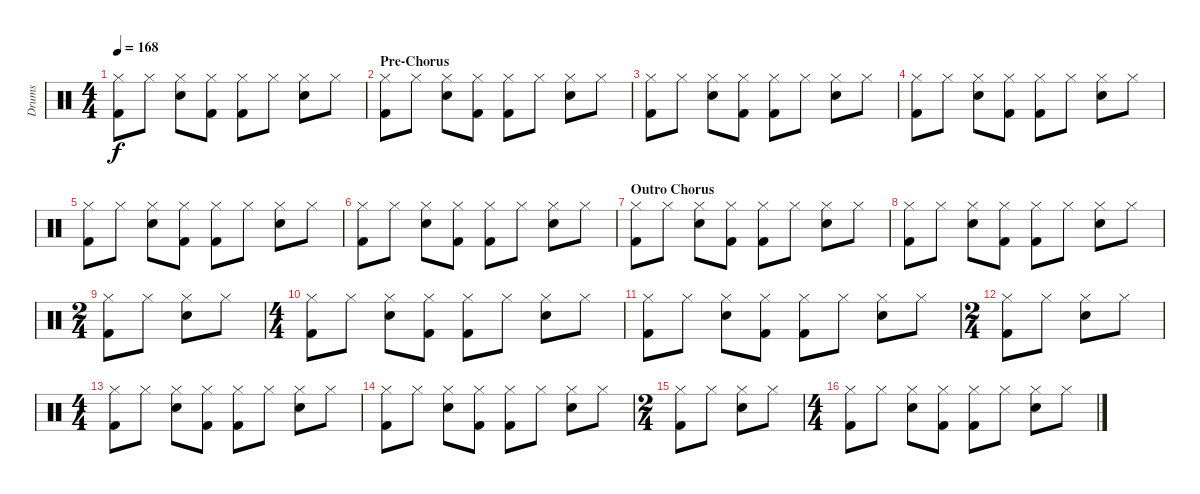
\track ("Drums" "Drums") {instrument percussion}
\staff {score}
\articulation defaults
\ts (4 4)
\tempo 168
\clef neutral
\ks c
("Kick (hit) 2" "Hi-Hat (closed)").8{dy f} "Hi-Hat (closed)".8 ("Snare (hit) 2" "Hi-Hat (closed)").8 ("Kick (hit) 2" "Hi-Hat (closed)").8 ("Kick (hit) 2" "Hi-Hat (closed)").8 "Hi-Hat (closed)".8 ("Snare (hit) 2" "Hi-Hat (closed)").8 "Hi-Hat (closed)".8 |
\section ("" "Pre-Chorus")
("Kick (hit) 2" "Hi-Hat (closed)").8 "Hi-Hat (closed)".8 ("Snare (hit) 2" "Hi-Hat (closed)").8 ("Kick (hit) 2" "Hi-Hat (closed)").8 ("Kick (hit) 2" "Hi-Hat (closed)").8 "Hi-Hat (closed)".8 ("Snare (hit) 2" "Hi-Hat (closed)").8 "Hi-Hat (closed)".8 |
("Kick (hit) 2" "Hi-Hat (closed)").8 "Hi-Hat (closed)".8 ("Snare (hit) 2" "Hi-Hat (closed)").8 ("Kick (hit) 2" "Hi-Hat (closed)").8 ("Kick (hit) 2" "Hi-Hat (closed)").8 "Hi-Hat (closed)".8 ("Snare (hit) 2" "Hi-Hat (closed)").8 "Hi-Hat (closed)".8 |
("Kick (hit) 2" "Hi-Hat (closed)").8 "Hi-Hat (closed)".8 ("Snare (hit) 2" "Hi-Hat (closed)").8 ("Kick (hit) 2" "Hi-Hat (closed)").8 ("Kick (hit) 2" "Hi-Hat (closed)").8 "Hi-Hat (closed)".8 ("Snare (hit) 2" "Hi-Hat (closed)").8 "Hi-Hat (closed)".8 |
("Kick (hit) 2" "Hi-Hat (closed)").8 "Hi-Hat (closed)".8 ("Snare (hit) 2" "Hi-Hat (closed)").8 ("Kick (hit) 2" "Hi-Hat (closed)").8 ("Kick (hit) 2" "Hi-Hat (closed)").8 "Hi-Hat (closed)".8 ("Snare (hit) 2" "Hi-Hat (closed)").8 "Hi-Hat (closed)".8 |
("Kick (hit) 2" "Hi-Hat (closed)").8 "Hi-Hat (closed)".8 ("Snare (hit) 2" "Hi-Hat (closed)").8 ("Kick (hit) 2" "Hi-Hat (closed)").8 ("Kick (hit) 2" "Hi-Hat (closed)").8 "Hi-Hat (closed)".8 ("Snare (hit) 2" "Hi-Hat (closed)").8 "Hi-Hat (closed)".8 |
\section ("" "Outro Chorus")
("Kick (hit) 2" "Hi-Hat (closed)").8 "Hi-Hat (closed)".8 ("Snare (hit) 2" "Hi-Hat (closed)").8 ("Kick (hit) 2" "Hi-Hat (closed)").8 ("Kick (hit) 2" "Hi-Hat (closed)").8 "Hi-Hat (closed)".8 ("Snare (hit) 2" "Hi-Hat (closed)").8 "Hi-Hat (closed)".8 |
("Kick (hit) 2" "Hi-Hat (closed)").8 "Hi-Hat (closed)".8 ("Snare (hit) 2" "Hi-Hat (closed)").8 ("Kick (hit) 2" "Hi-Hat (closed)").8 ("Kick (hit) 2" "Hi-Hat (closed)").8 "Hi-Hat (closed)".8 ("Snare (hit) 2" "Hi-Hat (closed)").8 "Hi-Hat (closed)".8 |
\ts (2 4)
("Kick (hit) 2" "Hi-Hat (closed)").8 "Hi-Hat (closed)".8 ("Snare (hit) 2" "Hi-Hat (closed)").8 "Hi-Hat (closed)".8 |
\ts (4 4)
("Kick (hit) 2" "Hi-Hat (closed)").8 "Hi-Hat (closed)".8 ("Snare (hit) 2" "Hi-Hat (closed)").8 ("Kick (hit) 2" "Hi-Hat (closed)").8 ("Kick (hit) 2" "Hi-Hat (closed)").8 "Hi-Hat (closed)".8 ("Snare (hit) 2" "Hi-Hat (closed)").8 "Hi-Hat (closed)".8 |
("Kick (hit) 2" "Hi-Hat (closed)").8 "Hi-Hat (closed)".8 ("Snare (hit) 2" "Hi-Hat (closed)").8 ("Kick (hit) 2" "Hi-Hat (closed)").8 ("Kick (hit) 2" "Hi-Hat (closed)").8 "Hi-Hat (closed)".8 ("Snare (hit) 2" "Hi-Hat (closed)").8 "Hi-Hat (closed)".8 |
\ts (2 4)
("Kick (hit) 2" "Hi-Hat (closed)").8 "Hi-Hat (closed)".8 ("Snare (hit) 2" "Hi-Hat (closed)").8 "Hi-Hat (closed)".8 |
\ts (4 4)
("Kick (hit) 2" "Hi-Hat (closed)").8 "Hi-Hat (closed)".8 ("Snare (hit) 2" "Hi-Hat (closed)").8 ("Kick (hit) 2" "Hi-Hat (closed)").8 ("Kick (hit) 2" "Hi-Hat (closed)").8 "Hi-Hat (closed)".8 ("Snare (hit) 2" "Hi-Hat (closed)").8 "Hi-Hat (closed)".8 |
("Kick (hit) 2" "Hi-Hat (closed)").8 "Hi-Hat (closed)".8 ("Snare (hit) 2" "Hi-Hat (closed)").8 ("Kick (hit) 2" "Hi-Hat (closed)").8 ("Kick (hit) 2" "Hi-Hat (closed)").8 "Hi-Hat (closed)".8 ("Snare (hit) 2" "Hi-Hat (closed)").8 "Hi-Hat (closed)".8 |
\ts (2 4)
("Kick (hit) 2" "Hi-Hat (closed)").8 "Hi-Hat (closed)".8 ("Snare (hit) 2" "Hi-Hat (closed)").8 "Hi-Hat (closed)".8 |
\ts (4 4)
("Kick (hit) 2" "Hi-Hat (closed)").8 "Hi-Hat (closed)".8 ("Snare (hit) 2" "Hi-Hat (closed)").8 ("Kick (hit) 2" "Hi-Hat (closed)").8 ("Kick (hit) 2" "Hi-Hat (closed)").8 "Hi-Hat (closed)".8 ("Snare (hit) 2" "Hi-Hat (closed)").8 "Hi-Hat (closed)".8
